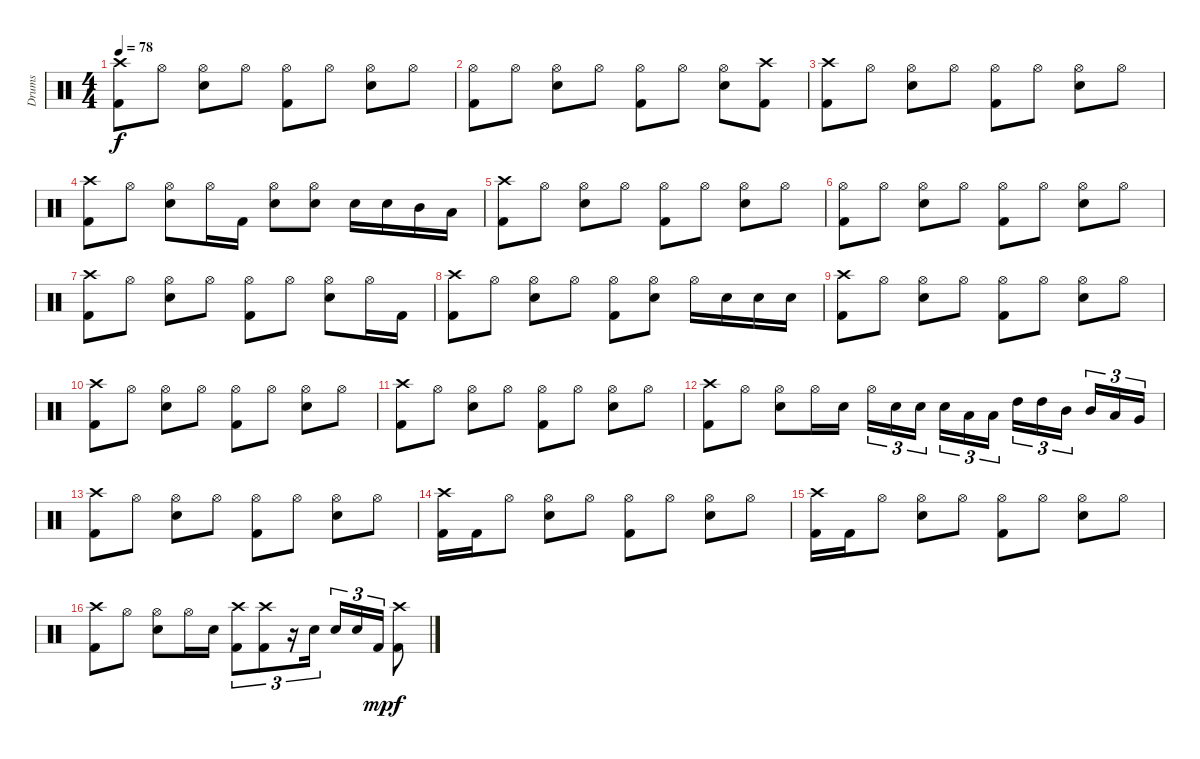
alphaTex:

\track ("Drums" "Drums") {instrument percussion}
\staff {score}
\articulation defaults
\ts (4 4)
\tempo 78
\clef neutral
\ks c
("Crash high (hit)" "Kick (hit) 2").8{dy f} "Hi-Hat (open)".8 ("Hi-Hat (open)" "Snare (hit) 2").8 "Hi-Hat (open)".8 ("Hi-Hat (open)" "Kick (hit) 2").8 "Hi-Hat (open)".8 ("Hi-Hat (open)" "Snare (hit) 2").8 "Hi-Hat (open)".8 |
("Hi-Hat (open)" "Kick (hit) 2").8 "Hi-Hat (open)".8 ("Hi-Hat (open)" "Snare (hit) 2").8 "Hi-Hat (open)".8 ("Hi-Hat (open)" "Kick (hit) 2").8 "Hi-Hat (open)".8 ("Hi-Hat (open)" "Snare (hit) 2").8 ("Crash high (hit)" "Kick (hit) 2").8 |
("Crash high (hit)" "Kick (hit) 2").8 "Hi-Hat (open)".8 ("Hi-Hat (open)" "Snare (hit) 2").8 "Hi-Hat (open)".8 ("Hi-Hat (open)" "Kick (hit) 2").8 "Hi-Hat (open)".8 ("Hi-Hat (open)" "Snare (hit) 2").8 "Hi-Hat (open)".8 |
("Crash high (hit)" "Kick (hit) 2").8 "Hi-Hat (open)".8 ("Hi-Hat (open)" "Snare (hit) 2").8 "Hi-Hat (open)".16 "Kick (hit) 2".16 ("Hi-Hat (open)" "Snare (hit) 2").8 ("Hi-Hat (open)" "Snare (hit) 2").8 "Snare (hit) 2".16 "Snare (hit) 2".16 "Mid Tom (hit)".16 "Low Tom (hit)".16 |
("Crash high (hit)" "Kick (hit) 2").8 "Hi-Hat (open)".8 ("Hi-Hat (open)" "Snare (hit) 2").8 "Hi-Hat (open)".8 ("Hi-Hat (open)" "Kick (hit) 2").8 "Hi-Hat (open)".8 ("Hi-Hat (open)" "Snare (hit) 2").8 "Hi-Hat (open)".8 |
("Hi-Hat (open)" "Kick (hit) 2").8 "Hi-Hat (open)".8 ("Hi-Hat (open)" "Snare (hit) 2").8 "Hi-Hat (open)".8 ("Hi-Hat (open)" "Kick (hit) 2").8 "Hi-Hat (open)".8 ("Hi-Hat (open)" "Snare (hit) 2").8 "Hi-Hat (open)".8 |
("Crash high (hit)" "Kick (hit) 2").8 "Hi-Hat (open)".8 ("Hi-Hat (open)" "Snare (hit) 2").8 "Hi-Hat (open)".8 ("Hi-Hat (open)" "Kick (hit) 2").8 "Hi-Hat (open)".8 ("Hi-Hat (open)" "Snare (hit) 2").8 "Hi-Hat (open)".16 "Kick (hit) 2".16 |
("Crash high (hit)" "Kick (hit) 2").8 "Hi-Hat (open)".8 ("Hi-Hat (open)" "Snare (hit) 2").8 "Hi-Hat (open)".8 ("Hi-Hat (open)" "Kick (hit) 2").8 ("Hi-Hat (open)" "Snare (hit) 2").8 "Hi-Hat (open)".16 "Snare (hit) 2".16 "Snare (hit) 2".16 "Snare (hit) 2".16 |
("Crash high (hit)" "Kick (hit) 2").8 "Hi-Hat (open)".8 ("Hi-Hat (open)" "Snare (hit) 2").8 "Hi-Hat (open)".8 ("Hi-Hat (open)" "Kick (hit) 2").8 "Hi-Hat (open)".8 ("Hi-Hat (open)" "Snare (hit) 2").8 "Hi-Hat (open)".8 |
("Crash high (hit)" "Kick (hit) 2").8 "Hi-Hat (open)".8 ("Hi-Hat (open)" "Snare (hit) 2").8 "Hi-Hat (open)".8 ("Hi-Hat (open)" "Kick (hit) 2").8 "Hi-Hat (open)".8 ("Hi-Hat (open)" "Snare (hit) 2").8 "Hi-Hat (open)".8 |
("Crash high (hit)" "Kick (hit) 2").8 "Hi-Hat (open)".8 ("Hi-Hat (open)" "Snare (hit) 2").8 "Hi-Hat (open)".8 ("Hi-Hat (open)" "Kick (hit) 2").8 "Hi-Hat (open)".8 ("Hi-Hat (open)" "Snare (hit) 2").8 "Hi-Hat (open)".8 |
("Crash high (hit)" "Kick (hit) 2").8 "Hi-Hat (open)".8 ("Hi-Hat (open)" "Snare (hit) 2").8 "Hi-Hat (open)".16 "Snare (hit) 2".16 "Hi-Hat (open)".16{tu (3 2)} "Snare (hit) 2".16{tu (3 2)} "Snare (hit) 2".16{tu (3 2)} "Snare (hit) 2".16{tu (3 2)} "Low Floor Tom (hit)".16{tu (3 2)} "Low Floor Tom (hit)".16{tu (3 2)} "High Tom (hit)".16{tu (3 2)} "High Tom (hit)".16{tu (3 2)} "Mid Tom (hit)".16{tu (3 2)} "Mid Tom (hit)".16{tu (3 2)} "Low Tom (hit)".16{tu (3 2)} "Very Low Tom (hit)".16{tu (3 2)} |
("Crash high (hit)" "Kick (hit) 2").8 "Hi-Hat (open)".8 ("Hi-Hat (open)" "Snare (hit) 2").8 "Hi-Hat (open)".8 ("Hi-Hat (open)" "Kick (hit) 2").8 "Hi-Hat (open)".8 ("Hi-Hat (open)" "Snare (hit) 2").8 "Hi-Hat (open)".8 |
("Crash high (hit)" "Kick (hit) 2").16 "Kick (hit) 2".16 "Hi-Hat (open)".8 ("Hi-Hat (open)" "Snare (hit) 2").8 "Hi-Hat (open)".8 ("Hi-Hat (open)" "Kick (hit) 2").8 "Hi-Hat (open)".8 ("Hi-Hat (open)" "Snare (hit) 2").8 "Hi-Hat (open)".8 |
("Crash high (hit)" "Kick (hit) 2").16 "Kick (hit) 2".16 "Hi-Hat (open)".8 ("Hi-Hat (open)" "Snare (hit) 2").8 "Hi-Hat (open)".8 ("Hi-Hat (open)" "Kick (hit) 2").8 "Hi-Hat (open)".8 ("Hi-Hat (open)" "Snare (hit) 2").8 "Hi-Hat (open)".8 |
("Crash high (hit)" "Kick (hit) 2").8 "Hi-Hat (open)".8 ("Hi-Hat (open)" "Snare (hit) 2").8 "Hi-Hat (open)".16 "Snare (hit) 2".16 ("Crash high (hit)" "Kick (hit) 2").8{tu (3 2)} ("Crash high (hit)" "Kick (hit) 2").8{tu (3 2)} r.16{tu (3 2)} "Snare (hit) 2".16{tu (3 2)} "Snare (hit) 2".16{tu (3 2)} "Snare (hit) 2".16{tu (3 2)} "Kick (hit) 2".16{tu (3 2) dy mp} ("Crash high (hit)" "Kick (hit) 2").8{dy f}
